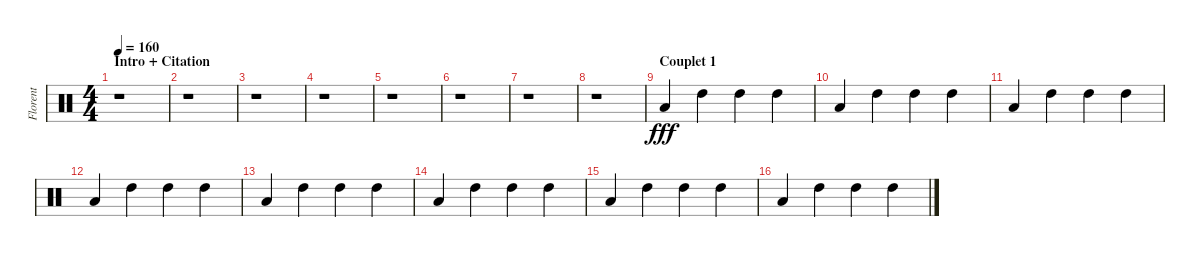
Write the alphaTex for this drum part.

\track ("Florent" "Florent") {instrument percussion}
\staff {score}
\articulation defaults
\ts (4 4)
\section ("" "Intro + Citation")
\tempo 160
\clef neutral
\ks c
r.1{dy fff} |
r.1 |
r.1 |
r.1 |
r.1 |
r.1 |
r.1 |
r.1 |
\section ("" "Couplet 1")
"Low Tom (hit)".4 "High Tom (hit)".4 "High Tom (hit)".4 "High Tom (hit)".4 |
"Low Tom (hit)".4 "High Tom (hit)".4 "High Tom (hit)".4 "High Tom (hit)".4 |
"Low Tom (hit)".4 "High Tom (hit)".4 "High Tom (hit)".4 "High Tom (hit)".4 |
"Low Tom (hit)".4 "High Tom (hit)".4 "High Tom (hit)".4 "High Tom (hit)".4 |
"Low Tom (hit)".4 "High Tom (hit)".4 "High Tom (hit)".4 "High Tom (hit)".4 |
"Low Tom (hit)".4 "High Tom (hit)".4 "High Tom (hit)".4 "High Tom (hit)".4 |
"Low Tom (hit)".4 "High Tom (hit)".4 "High Tom (hit)".4 "High Tom (hit)".4 |
"Low Tom (hit)".4 "High Tom (hit)".4 "High Tom (hit)".4 "High Tom (hit)".4
